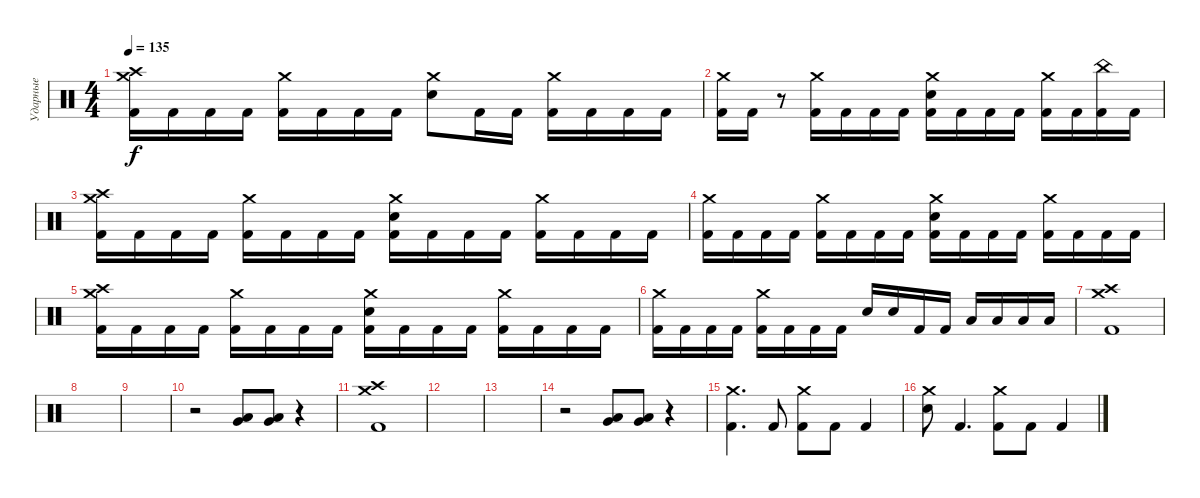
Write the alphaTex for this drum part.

\track ("Ударные" "Ударные") {instrument percussion}
\staff {score}
\articulation defaults
\ts (4 4)
\tempo 135
\clef neutral
\ks c
("Crash medium (hit)" "Crash high (hit)" "Kick (hit) 2").16{dy f} "Kick (hit) 2".16 "Kick (hit) 2".16 "Kick (hit) 2".16 ("Crash medium (hit)" "Kick (hit) 2").16 "Kick (hit) 2".16 "Kick (hit) 2".16 "Kick (hit) 2".16 ("Crash medium (hit)" "Electric Snare (hit)").8 "Kick (hit) 2".16 "Kick (hit) 2".16 ("Crash medium (hit)" "Kick (hit) 2").16 "Kick (hit) 2".16 "Kick (hit) 2".16 "Kick (hit) 2".16 |
("Crash medium (hit)" "Kick (hit) 2").16 "Kick (hit) 2".16 r.8 ("Crash medium (hit)" "Kick (hit) 2").16 "Kick (hit) 2".16 "Kick (hit) 2".16 "Kick (hit) 2".16 ("Crash medium (hit)" "Electric Snare (hit)" "Kick (hit) 2").16 "Kick (hit) 2".16 "Kick (hit) 2".16 "Kick (hit) 2".16 ("Crash medium (hit)" "Kick (hit) 2").16 "Kick (hit) 2".16 ("China (hit)" "Kick (hit) 2").16 "Kick (hit) 2".16 |
("Crash medium (hit)" "Crash high (hit)" "Kick (hit) 2").16 "Kick (hit) 2".16 "Kick (hit) 2".16 "Kick (hit) 2".16 ("Crash medium (hit)" "Kick (hit) 2").16 "Kick (hit) 2".16 "Kick (hit) 2".16 "Kick (hit) 2".16 ("Crash medium (hit)" "Electric Snare (hit)" "Kick (hit) 2").16 "Kick (hit) 2".16 "Kick (hit) 2".16 "Kick (hit) 2".16 ("Crash medium (hit)" "Kick (hit) 2").16 "Kick (hit) 2".16 "Kick (hit) 2".16 "Kick (hit) 2".16 |
("Crash medium (hit)" "Kick (hit) 2").16 "Kick (hit) 2".16 "Kick (hit) 2".16 "Kick (hit) 2".16 ("Crash medium (hit)" "Kick (hit) 2").16 "Kick (hit) 2".16 "Kick (hit) 2".16 "Kick (hit) 2".16 ("Crash medium (hit)" "Electric Snare (hit)" "Kick (hit) 2").16 "Kick (hit) 2".16 "Kick (hit) 2".16 "Kick (hit) 2".16 ("Crash medium (hit)" "Kick (hit) 2").16 "Kick (hit) 2".16 "Kick (hit) 2".16 "Kick (hit) 2".16 |
("Crash medium (hit)" "Crash high (hit)" "Kick (hit) 2").16 "Kick (hit) 2".16 "Kick (hit) 2".16 "Kick (hit) 2".16 ("Crash medium (hit)" "Kick (hit) 2").16 "Kick (hit) 2".16 "Kick (hit) 2".16 "Kick (hit) 2".16 ("Crash medium (hit)" "Electric Snare (hit)" "Kick (hit) 2").16 "Kick (hit) 2".16 "Kick (hit) 2".16 "Kick (hit) 2".16 ("Crash medium (hit)" "Kick (hit) 2").16 "Kick (hit) 2".16 "Kick (hit) 2".16 "Kick (hit) 2".16 |
("Crash medium (hit)" "Kick (hit) 2").16 "Kick (hit) 2".16 "Kick (hit) 2".16 "Kick (hit) 2".16 ("Crash medium (hit)" "Kick (hit) 2").16 "Kick (hit) 2".16 "Kick (hit) 2".16 "Kick (hit) 2".16 "Electric Snare (hit)".16 "Electric Snare (hit)".16 "Kick (hit) 2".16 "Kick (hit) 2".16 "Low Tom (hit)".16 "Low Tom (hit)".16 "Low Tom (hit)".16 "Low Tom (hit)".16 |
("Crash medium (hit)" "Crash high (hit)" "Kick (hit) 2").1 |
|
|
r.2 ("Low Tom (hit)" "Very Low Tom (hit)").8 ("Low Tom (hit)" "Very Low Tom (hit)").8 r.4 |
("Crash medium (hit)" "Crash high (hit)" "Kick (hit) 2").1 |
|
|
r.2 ("Low Tom (hit)" "Very Low Tom (hit)").8 ("Low Tom (hit)" "Very Low Tom (hit)").8 r.4 |
("Crash medium (hit)" "Kick (hit) 2").4{d} "Kick (hit) 2".8 ("Crash medium (hit)" "Kick (hit) 2").8 "Kick (hit) 2".8 "Kick (hit) 2".4 |
("Crash medium (hit)" "Electric Snare (hit)").8 "Kick (hit) 2".4{d} ("Crash medium (hit)" "Kick (hit) 2").8 "Kick (hit) 2".8 "Kick (hit) 2".4
